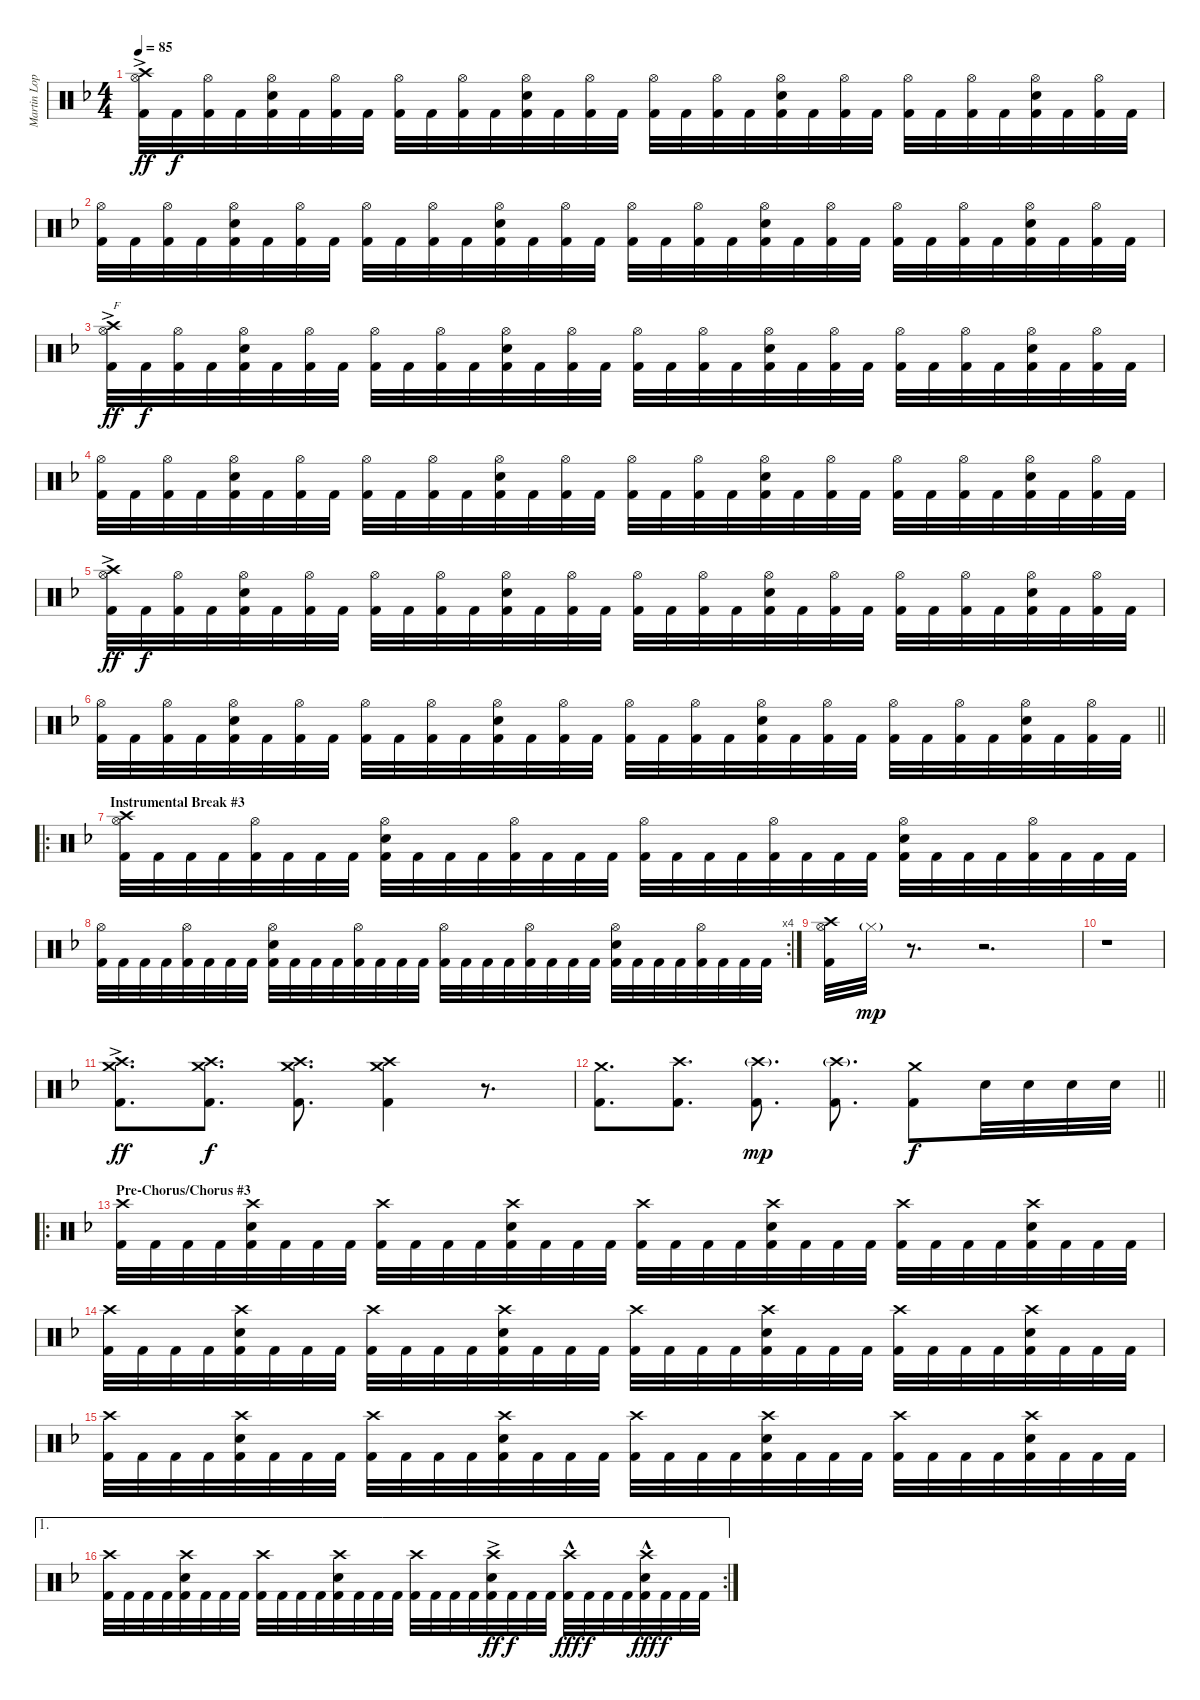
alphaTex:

\track ("Martin Lopez - Drums" "Martin Lop") {instrument percussion}
\staff {score}
\articulation defaults
\ts (4 4)
\tempo 85
\clef neutral
\ks f
("Crash high (hit)"{ac} "Hi-Hat (open)" "Kick (hit) 2").32{dy ff} "Kick (hit) 2".32{dy f} ("Hi-Hat (open)" "Kick (hit) 2").32 "Kick (hit) 2".32 ("Hi-Hat (open)" "Electric Snare (hit)" "Kick (hit) 2").32 "Kick (hit) 2".32 ("Hi-Hat (open)" "Kick (hit) 2").32 "Kick (hit) 2".32 ("Hi-Hat (open)" "Kick (hit) 2").32 "Kick (hit) 2".32 ("Hi-Hat (open)" "Kick (hit) 2").32 "Kick (hit) 2".32 ("Hi-Hat (open)" "Electric Snare (hit)" "Kick (hit) 2").32 "Kick (hit) 2".32 ("Hi-Hat (open)" "Kick (hit) 2").32 "Kick (hit) 2".32 ("Hi-Hat (open)" "Kick (hit) 2").32 "Kick (hit) 2".32 ("Hi-Hat (open)" "Kick (hit) 2").32 "Kick (hit) 2".32 ("Hi-Hat (open)" "Electric Snare (hit)" "Kick (hit) 2").32 "Kick (hit) 2".32 ("Hi-Hat (open)" "Kick (hit) 2").32 "Kick (hit) 2".32 ("Hi-Hat (open)" "Kick (hit) 2").32 "Kick (hit) 2".32 ("Hi-Hat (open)" "Kick (hit) 2").32 "Kick (hit) 2".32 ("Hi-Hat (open)" "Electric Snare (hit)" "Kick (hit) 2").32 "Kick (hit) 2".32 ("Hi-Hat (open)" "Kick (hit) 2").32 "Kick (hit) 2".32 |
("Hi-Hat (open)" "Kick (hit) 2").32 "Kick (hit) 2".32 ("Hi-Hat (open)" "Kick (hit) 2").32 "Kick (hit) 2".32 ("Hi-Hat (open)" "Electric Snare (hit)" "Kick (hit) 2").32 "Kick (hit) 2".32 ("Hi-Hat (open)" "Kick (hit) 2").32 "Kick (hit) 2".32 ("Hi-Hat (open)" "Kick (hit) 2").32 "Kick (hit) 2".32 ("Hi-Hat (open)" "Kick (hit) 2").32 "Kick (hit) 2".32 ("Hi-Hat (open)" "Electric Snare (hit)" "Kick (hit) 2").32 "Kick (hit) 2".32 ("Hi-Hat (open)" "Kick (hit) 2").32 "Kick (hit) 2".32 ("Hi-Hat (open)" "Kick (hit) 2").32 "Kick (hit) 2".32 ("Hi-Hat (open)" "Kick (hit) 2").32 "Kick (hit) 2".32 ("Hi-Hat (open)" "Electric Snare (hit)" "Kick (hit) 2").32 "Kick (hit) 2".32 ("Hi-Hat (open)" "Kick (hit) 2").32 "Kick (hit) 2".32 ("Hi-Hat (open)" "Kick (hit) 2").32 "Kick (hit) 2".32 ("Hi-Hat (open)" "Kick (hit) 2").32 "Kick (hit) 2".32 ("Hi-Hat (open)" "Electric Snare (hit)" "Kick (hit) 2").32 "Kick (hit) 2".32 ("Hi-Hat (open)" "Kick (hit) 2").32 "Kick (hit) 2".32 |
("Crash high (hit)"{ac} "Hi-Hat (open)" "Kick (hit) 2").32{txt "F" dy ff} "Kick (hit) 2".32{dy f} ("Hi-Hat (open)" "Kick (hit) 2").32 "Kick (hit) 2".32 ("Hi-Hat (open)" "Electric Snare (hit)" "Kick (hit) 2").32 "Kick (hit) 2".32 ("Hi-Hat (open)" "Kick (hit) 2").32 "Kick (hit) 2".32 ("Hi-Hat (open)" "Kick (hit) 2").32 "Kick (hit) 2".32 ("Hi-Hat (open)" "Kick (hit) 2").32 "Kick (hit) 2".32 ("Hi-Hat (open)" "Electric Snare (hit)" "Kick (hit) 2").32 "Kick (hit) 2".32 ("Hi-Hat (open)" "Kick (hit) 2").32 "Kick (hit) 2".32 ("Hi-Hat (open)" "Kick (hit) 2").32 "Kick (hit) 2".32 ("Hi-Hat (open)" "Kick (hit) 2").32 "Kick (hit) 2".32 ("Hi-Hat (open)" "Electric Snare (hit)" "Kick (hit) 2").32 "Kick (hit) 2".32 ("Hi-Hat (open)" "Kick (hit) 2").32 "Kick (hit) 2".32 ("Hi-Hat (open)" "Kick (hit) 2").32 "Kick (hit) 2".32 ("Hi-Hat (open)" "Kick (hit) 2").32 "Kick (hit) 2".32 ("Hi-Hat (open)" "Electric Snare (hit)" "Kick (hit) 2").32 "Kick (hit) 2".32 ("Hi-Hat (open)" "Kick (hit) 2").32 "Kick (hit) 2".32 |
("Hi-Hat (open)" "Kick (hit) 2").32 "Kick (hit) 2".32 ("Hi-Hat (open)" "Kick (hit) 2").32 "Kick (hit) 2".32 ("Hi-Hat (open)" "Electric Snare (hit)" "Kick (hit) 2").32 "Kick (hit) 2".32 ("Hi-Hat (open)" "Kick (hit) 2").32 "Kick (hit) 2".32 ("Hi-Hat (open)" "Kick (hit) 2").32 "Kick (hit) 2".32 ("Hi-Hat (open)" "Kick (hit) 2").32 "Kick (hit) 2".32 ("Hi-Hat (open)" "Electric Snare (hit)" "Kick (hit) 2").32 "Kick (hit) 2".32 ("Hi-Hat (open)" "Kick (hit) 2").32 "Kick (hit) 2".32 ("Hi-Hat (open)" "Kick (hit) 2").32 "Kick (hit) 2".32 ("Hi-Hat (open)" "Kick (hit) 2").32 "Kick (hit) 2".32 ("Hi-Hat (open)" "Electric Snare (hit)" "Kick (hit) 2").32 "Kick (hit) 2".32 ("Hi-Hat (open)" "Kick (hit) 2").32 "Kick (hit) 2".32 ("Hi-Hat (open)" "Kick (hit) 2").32 "Kick (hit) 2".32 ("Hi-Hat (open)" "Kick (hit) 2").32 "Kick (hit) 2".32 ("Hi-Hat (open)" "Electric Snare (hit)" "Kick (hit) 2").32 "Kick (hit) 2".32 ("Hi-Hat (open)" "Kick (hit) 2").32 "Kick (hit) 2".32 |
("Crash high (hit)"{ac} "Hi-Hat (open)" "Kick (hit) 2").32{dy ff} "Kick (hit) 2".32{dy f} ("Hi-Hat (open)" "Kick (hit) 2").32 "Kick (hit) 2".32 ("Hi-Hat (open)" "Electric Snare (hit)" "Kick (hit) 2").32 "Kick (hit) 2".32 ("Hi-Hat (open)" "Kick (hit) 2").32 "Kick (hit) 2".32 ("Hi-Hat (open)" "Kick (hit) 2").32 "Kick (hit) 2".32 ("Hi-Hat (open)" "Kick (hit) 2").32 "Kick (hit) 2".32 ("Hi-Hat (open)" "Electric Snare (hit)" "Kick (hit) 2").32 "Kick (hit) 2".32 ("Hi-Hat (open)" "Kick (hit) 2").32 "Kick (hit) 2".32 ("Hi-Hat (open)" "Kick (hit) 2").32 "Kick (hit) 2".32 ("Hi-Hat (open)" "Kick (hit) 2").32 "Kick (hit) 2".32 ("Hi-Hat (open)" "Electric Snare (hit)" "Kick (hit) 2").32 "Kick (hit) 2".32 ("Hi-Hat (open)" "Kick (hit) 2").32 "Kick (hit) 2".32 ("Hi-Hat (open)" "Kick (hit) 2").32 "Kick (hit) 2".32 ("Hi-Hat (open)" "Kick (hit) 2").32 "Kick (hit) 2".32 ("Hi-Hat (open)" "Electric Snare (hit)" "Kick (hit) 2").32 "Kick (hit) 2".32 ("Hi-Hat (open)" "Kick (hit) 2").32 "Kick (hit) 2".32 |
\barLineRight lightlight
("Hi-Hat (open)" "Kick (hit) 2").32 "Kick (hit) 2".32 ("Hi-Hat (open)" "Kick (hit) 2").32 "Kick (hit) 2".32 ("Hi-Hat (open)" "Electric Snare (hit)" "Kick (hit) 2").32 "Kick (hit) 2".32 ("Hi-Hat (open)" "Kick (hit) 2").32 "Kick (hit) 2".32 ("Hi-Hat (open)" "Kick (hit) 2").32 "Kick (hit) 2".32 ("Hi-Hat (open)" "Kick (hit) 2").32 "Kick (hit) 2".32 ("Hi-Hat (open)" "Electric Snare (hit)" "Kick (hit) 2").32 "Kick (hit) 2".32 ("Hi-Hat (open)" "Kick (hit) 2").32 "Kick (hit) 2".32 ("Hi-Hat (open)" "Kick (hit) 2").32 "Kick (hit) 2".32 ("Hi-Hat (open)" "Kick (hit) 2").32 "Kick (hit) 2".32 ("Hi-Hat (open)" "Electric Snare (hit)" "Kick (hit) 2").32 "Kick (hit) 2".32 ("Hi-Hat (open)" "Kick (hit) 2").32 "Kick (hit) 2".32 ("Hi-Hat (open)" "Kick (hit) 2").32 "Kick (hit) 2".32 ("Hi-Hat (open)" "Kick (hit) 2").32 "Kick (hit) 2".32 ("Hi-Hat (open)" "Electric Snare (hit)" "Kick (hit) 2").32 "Kick (hit) 2".32 ("Hi-Hat (open)" "Kick (hit) 2").32 "Kick (hit) 2".32 |
\ro
\section ("" "Instrumental Break #3")
("Crash high (hit)" "Hi-Hat (open)" "Kick (hit) 2").32 "Kick (hit) 2".32 "Kick (hit) 2".32 "Kick (hit) 2".32 ("Hi-Hat (open)" "Kick (hit) 2").32 "Kick (hit) 2".32 "Kick (hit) 2".32 "Kick (hit) 2".32 ("Hi-Hat (open)" "Electric Snare (hit)" "Kick (hit) 2").32 "Kick (hit) 2".32 "Kick (hit) 2".32 "Kick (hit) 2".32 ("Hi-Hat (open)" "Kick (hit) 2").32 "Kick (hit) 2".32 "Kick (hit) 2".32 "Kick (hit) 2".32 ("Hi-Hat (open)" "Kick (hit) 2").32 "Kick (hit) 2".32 "Kick (hit) 2".32 "Kick (hit) 2".32 ("Hi-Hat (open)" "Kick (hit) 2").32 "Kick (hit) 2".32 "Kick (hit) 2".32 "Kick (hit) 2".32 ("Hi-Hat (open)" "Electric Snare (hit)" "Kick (hit) 2").32 "Kick (hit) 2".32 "Kick (hit) 2".32 "Kick (hit) 2".32 ("Hi-Hat (open)" "Kick (hit) 2").32 "Kick (hit) 2".32 "Kick (hit) 2".32 "Kick (hit) 2".32 |
\rc 4
("Hi-Hat (open)" "Kick (hit) 2").32 "Kick (hit) 2".32 "Kick (hit) 2".32 "Kick (hit) 2".32 ("Hi-Hat (open)" "Kick (hit) 2").32 "Kick (hit) 2".32 "Kick (hit) 2".32 "Kick (hit) 2".32 ("Hi-Hat (open)" "Electric Snare (hit)" "Kick (hit) 2").32 "Kick (hit) 2".32 "Kick (hit) 2".32 "Kick (hit) 2".32 ("Hi-Hat (open)" "Kick (hit) 2").32 "Kick (hit) 2".32 "Kick (hit) 2".32 "Kick (hit) 2".32 ("Hi-Hat (open)" "Kick (hit) 2").32 "Kick (hit) 2".32 "Kick (hit) 2".32 "Kick (hit) 2".32 ("Hi-Hat (open)" "Kick (hit) 2").32 "Kick (hit) 2".32 "Kick (hit) 2".32 "Kick (hit) 2".32 ("Hi-Hat (open)" "Electric Snare (hit)" "Kick (hit) 2").32 "Kick (hit) 2".32 "Kick (hit) 2".32 "Kick (hit) 2".32 ("Hi-Hat (open)" "Kick (hit) 2").32 "Kick (hit) 2".32 "Kick (hit) 2".32 "Kick (hit) 2".32 |
("Crash high (hit)" "Hi-Hat (open)" "Kick (hit) 2").32 "Hi-Hat (closed)"{g}.32{dy mp} r.8{d volume 0} r.2{d} |
r.1{volume 16} |
("Crash medium (hit)"{ac} "Crash high (hit)"{ac} "Kick (hit) 2"{ac}).8{d dy ff} ("Crash medium (hit)" "Crash high (hit)" "Kick (hit) 2").8{d dy f} ("Crash medium (hit)" "Crash high (hit)" "Kick (hit) 2").8{d} ("Crash medium (hit)" "Crash high (hit)" "Kick (hit) 2").4 r.8{d} |
\barLineRight lightlight
("Crash medium (hit)" "Kick (hit) 2").8{d} ("Crash high (hit)" "Kick (hit) 2").8{d} ("Crash high (hit)"{g} "Kick (hit) 2").8{d dy mp} ("Crash high (hit)"{g} "Kick (hit) 2").8{d} ("Crash medium (hit)" "Kick (hit) 2").8{dy f} "Electric Snare (hit)".32 "Electric Snare (hit)".32 "Electric Snare (hit)".32 "Electric Snare (hit)".32 |
\ro
\section ("" "Pre-Chorus/Chorus #3")
("Crash high (hit)" "Kick (hit) 2").32 "Kick (hit) 2".32 "Kick (hit) 2".32 "Kick (hit) 2".32 ("Crash high (hit)" "Electric Snare (hit)" "Kick (hit) 2").32 "Kick (hit) 2".32 "Kick (hit) 2".32 "Kick (hit) 2".32 ("Crash high (hit)" "Kick (hit) 2").32 "Kick (hit) 2".32 "Kick (hit) 2".32 "Kick (hit) 2".32 ("Crash high (hit)" "Electric Snare (hit)" "Kick (hit) 2").32 "Kick (hit) 2".32 "Kick (hit) 2".32 "Kick (hit) 2".32 ("Crash high (hit)" "Kick (hit) 2").32 "Kick (hit) 2".32 "Kick (hit) 2".32 "Kick (hit) 2".32 ("Crash high (hit)" "Electric Snare (hit)" "Kick (hit) 2").32 "Kick (hit) 2".32 "Kick (hit) 2".32 "Kick (hit) 2".32 ("Crash high (hit)" "Kick (hit) 2").32 "Kick (hit) 2".32 "Kick (hit) 2".32 "Kick (hit) 2".32 ("Crash high (hit)" "Electric Snare (hit)" "Kick (hit) 2").32 "Kick (hit) 2".32 "Kick (hit) 2".32 "Kick (hit) 2".32 |
("Crash high (hit)" "Kick (hit) 2").32 "Kick (hit) 2".32 "Kick (hit) 2".32 "Kick (hit) 2".32 ("Crash high (hit)" "Electric Snare (hit)" "Kick (hit) 2").32 "Kick (hit) 2".32 "Kick (hit) 2".32 "Kick (hit) 2".32 ("Crash high (hit)" "Kick (hit) 2").32 "Kick (hit) 2".32 "Kick (hit) 2".32 "Kick (hit) 2".32 ("Crash high (hit)" "Electric Snare (hit)" "Kick (hit) 2").32 "Kick (hit) 2".32 "Kick (hit) 2".32 "Kick (hit) 2".32 ("Crash high (hit)" "Kick (hit) 2").32 "Kick (hit) 2".32 "Kick (hit) 2".32 "Kick (hit) 2".32 ("Crash high (hit)" "Electric Snare (hit)" "Kick (hit) 2").32 "Kick (hit) 2".32 "Kick (hit) 2".32 "Kick (hit) 2".32 ("Crash high (hit)" "Kick (hit) 2").32 "Kick (hit) 2".32 "Kick (hit) 2".32 "Kick (hit) 2".32 ("Crash high (hit)" "Electric Snare (hit)" "Kick (hit) 2").32 "Kick (hit) 2".32 "Kick (hit) 2".32 "Kick (hit) 2".32 |
("Crash high (hit)" "Kick (hit) 2").32 "Kick (hit) 2".32 "Kick (hit) 2".32 "Kick (hit) 2".32 ("Crash high (hit)" "Electric Snare (hit)" "Kick (hit) 2").32 "Kick (hit) 2".32 "Kick (hit) 2".32 "Kick (hit) 2".32 ("Crash high (hit)" "Kick (hit) 2").32 "Kick (hit) 2".32 "Kick (hit) 2".32 "Kick (hit) 2".32 ("Crash high (hit)" "Electric Snare (hit)" "Kick (hit) 2").32 "Kick (hit) 2".32 "Kick (hit) 2".32 "Kick (hit) 2".32 ("Crash high (hit)" "Kick (hit) 2").32 "Kick (hit) 2".32 "Kick (hit) 2".32 "Kick (hit) 2".32 ("Crash high (hit)" "Electric Snare (hit)" "Kick (hit) 2").32 "Kick (hit) 2".32 "Kick (hit) 2".32 "Kick (hit) 2".32 ("Crash high (hit)" "Kick (hit) 2").32 "Kick (hit) 2".32 "Kick (hit) 2".32 "Kick (hit) 2".32 ("Crash high (hit)" "Electric Snare (hit)" "Kick (hit) 2").32 "Kick (hit) 2".32 "Kick (hit) 2".32 "Kick (hit) 2".32 |
\ae 1
\rc 2
("Crash high (hit)" "Kick (hit) 2").32 "Kick (hit) 2".32 "Kick (hit) 2".32 "Kick (hit) 2".32 ("Crash high (hit)" "Electric Snare (hit)" "Kick (hit) 2").32 "Kick (hit) 2".32 "Kick (hit) 2".32 "Kick (hit) 2".32 ("Crash high (hit)" "Kick (hit) 2").32 "Kick (hit) 2".32 "Kick (hit) 2".32 "Kick (hit) 2".32 ("Crash high (hit)" "Electric Snare (hit)" "Kick (hit) 2").32 "Kick (hit) 2".32 "Kick (hit) 2".32 "Kick (hit) 2".32 ("Crash high (hit)" "Kick (hit) 2").32 "Kick (hit) 2".32 "Kick (hit) 2".32 "Kick (hit) 2".32 ("Crash high (hit)"{ac} "Electric Snare (hit)" "Kick (hit) 2").32{dy ff} "Kick (hit) 2".32{dy f} "Kick (hit) 2".32 "Kick (hit) 2".32 ("Crash high (hit)"{hac} "Kick (hit) 2").32{dy fff} "Kick (hit) 2".32{dy f} "Kick (hit) 2".32 "Kick (hit) 2".32 ("Crash high (hit)"{hac} "Electric Snare (hit)" "Kick (hit) 2").32{dy fff} "Kick (hit) 2".32{dy f} "Kick (hit) 2".32 "Kick (hit) 2".32
